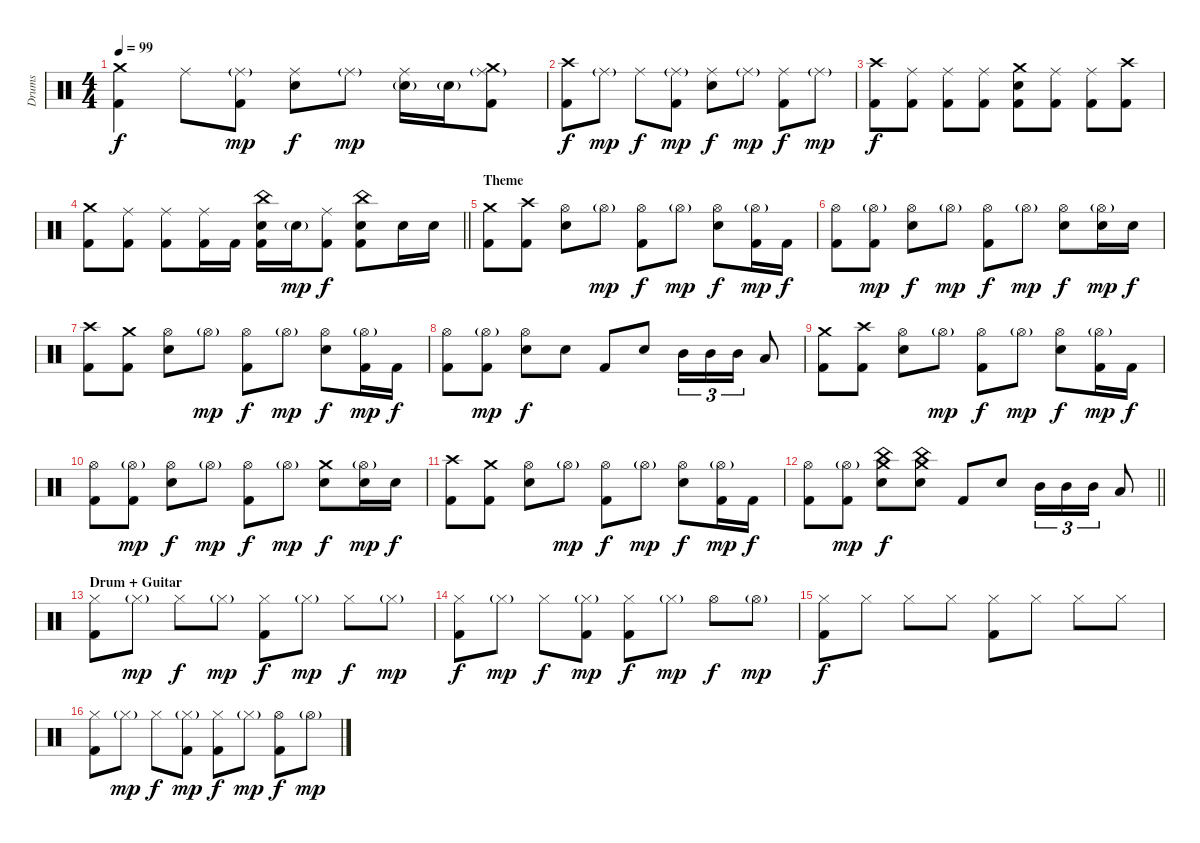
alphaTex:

\track ("Drums" "Drums") {instrument percussion}
\staff {score}
\articulation defaults
\ts (4 4)
\tempo 99
\clef neutral
\ks c
("Crash medium (hit)" "Kick (hit) 2").4{dy f} "Ride (middle)".8 ("Ride (middle)"{g} "Kick (hit) 2").8{dy mp} ("Ride (middle)" "Electric Snare (hit)").8{dy f} "Ride (middle)"{g}.8{dy mp} ("Ride (middle)" "Electric Snare (hit)"{g}).16 "Electric Snare (hit)"{g}.16 ("Crash medium (hit)" "Ride (middle)"{g} "Kick (hit) 2").8 |
("Crash high (hit)" "Kick (hit) 2").8{dy f} "Ride (middle)"{g}.8{dy mp} "Ride (middle)".8{dy f} ("Ride (middle)"{g} "Kick (hit) 2").8{dy mp} ("Ride (middle)" "Electric Snare (hit)").8{dy f} "Ride (middle)"{g}.8{dy mp} ("Ride (middle)" "Kick (hit) 2").8{dy f} "Ride (middle)"{g}.8{dy mp} |
("Crash high (hit)" "Kick (hit) 2").8{dy f} ("Ride (middle)" "Kick (hit) 2").8 ("Ride (middle)" "Kick (hit) 2").8 ("Ride (middle)" "Kick (hit) 2").8 ("Crash medium (hit)" "Electric Snare (hit)" "Kick (hit) 2").8 ("Ride (middle)" "Kick (hit) 2").8 ("Ride (middle)" "Kick (hit) 2").8 ("Crash high (hit)" "Kick (hit) 2").8 |
\barLineRight lightlight
("Crash medium (hit)" "Kick (hit) 2").8 ("Ride (middle)" "Kick (hit) 2").8 ("Ride (middle)" "Kick (hit) 2").8 ("Ride (middle)" "Kick (hit) 2").16 "Kick (hit) 2".16 ("China (hit)" "Electric Snare (hit)" "Kick (hit) 2").16 "Electric Snare (hit)"{g}.16{dy mp} ("Ride (middle)" "Kick (hit) 2").8{dy f} ("China (hit)" "Electric Snare (hit)" "Kick (hit) 2").8 "Electric Snare (hit)".16 "Electric Snare (hit)".16 |
\section ("" "Theme")
("Crash medium (hit)" "Kick (hit) 2").8 ("Crash high (hit)" "Kick (hit) 2").8 ("Hi-Hat (open)" "Electric Snare (hit)").8 "Hi-Hat (open)"{g}.8{dy mp} ("Hi-Hat (open)" "Kick (hit) 2").8{dy f} "Hi-Hat (open)"{g}.8{dy mp} ("Hi-Hat (open)" "Electric Snare (hit)").8{dy f} ("Hi-Hat (open)"{g} "Kick (hit) 2").16{dy mp} "Kick (hit) 2".16{dy f} |
("Hi-Hat (open)" "Kick (hit) 2").8 ("Hi-Hat (open)"{g} "Kick (hit) 2").8{dy mp} ("Hi-Hat (open)" "Electric Snare (hit)").8{dy f} "Hi-Hat (open)"{g}.8{dy mp} ("Hi-Hat (open)" "Kick (hit) 2").8{dy f} "Hi-Hat (open)"{g}.8{dy mp} ("Hi-Hat (open)" "Electric Snare (hit)").8{dy f} ("Hi-Hat (open)"{g} "Electric Snare (hit)").16{dy mp} "Electric Snare (hit)".16{dy f} |
("Crash high (hit)" "Kick (hit) 2").8 ("Crash medium (hit)" "Kick (hit) 2").8 ("Hi-Hat (open)" "Electric Snare (hit)").8 "Hi-Hat (open)"{g}.8{dy mp} ("Hi-Hat (open)" "Kick (hit) 2").8{dy f} "Hi-Hat (open)"{g}.8{dy mp} ("Hi-Hat (open)" "Electric Snare (hit)").8{dy f} ("Hi-Hat (open)"{g} "Kick (hit) 2").16{dy mp} "Kick (hit) 2".16{dy f} |
("Hi-Hat (open)" "Kick (hit) 2").8 ("Hi-Hat (open)"{g} "Kick (hit) 2").8{dy mp} ("Hi-Hat (open)" "Electric Snare (hit)").8{dy f} "Electric Snare (hit)".8 "Kick (hit) 2".8 "Electric Snare (hit)".8 "Mid Tom (hit)".16{tu (3 2)} "Mid Tom (hit)".16{tu (3 2)} "Mid Tom (hit)".16{tu (3 2)} "Low Tom (hit)".8 |
("Crash medium (hit)" "Kick (hit) 2").8 ("Crash high (hit)" "Kick (hit) 2").8 ("Hi-Hat (open)" "Electric Snare (hit)").8 "Hi-Hat (open)"{g}.8{dy mp} ("Hi-Hat (open)" "Kick (hit) 2").8{dy f} "Hi-Hat (open)"{g}.8{dy mp} ("Hi-Hat (open)" "Electric Snare (hit)").8{dy f} ("Hi-Hat (open)"{g} "Kick (hit) 2").16{dy mp} "Kick (hit) 2".16{dy f} |
("Hi-Hat (open)" "Kick (hit) 2").8 ("Hi-Hat (open)"{g} "Kick (hit) 2").8{dy mp} ("Hi-Hat (open)" "Electric Snare (hit)").8{dy f} "Hi-Hat (open)"{g}.8{dy mp} ("Hi-Hat (open)" "Kick (hit) 2").8{dy f} "Hi-Hat (open)"{g}.8{dy mp} ("Crash medium (hit)" "Electric Snare (hit)").8{dy f} ("Hi-Hat (open)"{g} "Electric Snare (hit)").16{dy mp} "Electric Snare (hit)".16{dy f} |
("Crash high (hit)" "Kick (hit) 2").8 ("Crash medium (hit)" "Kick (hit) 2").8 ("Hi-Hat (open)" "Electric Snare (hit)").8 "Hi-Hat (open)"{g}.8{dy mp} ("Hi-Hat (open)" "Kick (hit) 2").8{dy f} "Hi-Hat (open)"{g}.8{dy mp} ("Hi-Hat (open)" "Electric Snare (hit)").8{dy f} ("Hi-Hat (open)"{g} "Kick (hit) 2").16{dy mp} "Kick (hit) 2".16{dy f} |
\barLineRight lightlight
("Hi-Hat (open)" "Kick (hit) 2").8 ("Hi-Hat (open)"{g} "Kick (hit) 2").8{dy mp} ("Crash medium (hit)" "China (hit)" "Electric Snare (hit)").8{dy f} ("Crash medium (hit)" "China (hit)" "Electric Snare (hit)").8 "Kick (hit) 2".8 "Electric Snare (hit)".8 "Mid Tom (hit)".16{tu (3 2)} "Mid Tom (hit)".16{tu (3 2)} "Mid Tom (hit)".16{tu (3 2)} "Low Tom (hit)".8 |
\section ("" "Drum + Guitar")
("Hi-Hat (closed)" "Kick (hit) 2").8 "Hi-Hat (closed)"{g}.8{dy mp} "Hi-Hat (closed)".8{dy f} "Hi-Hat (closed)"{g}.8{dy mp} ("Hi-Hat (closed)" "Kick (hit) 2").8{dy f} "Hi-Hat (closed)"{g}.8{dy mp} "Hi-Hat (closed)".8{dy f} "Hi-Hat (closed)"{g}.8{dy mp} |
("Hi-Hat (closed)" "Kick (hit) 2").8{dy f} "Hi-Hat (closed)"{g}.8{dy mp} "Hi-Hat (closed)".8{dy f} ("Hi-Hat (closed)"{g} "Kick (hit) 2").8{dy mp} ("Hi-Hat (closed)" "Kick (hit) 2").8{dy f} "Hi-Hat (closed)"{g}.8{dy mp} "Hi-Hat (open)".8{dy f} "Hi-Hat (open)"{g}.8{dy mp} |
("Hi-Hat (closed)" "Kick (hit) 2").8{dy f} "Hi-Hat (closed)".8 "Hi-Hat (closed)".8 "Hi-Hat (closed)".8 ("Hi-Hat (closed)" "Kick (hit) 2").8 "Hi-Hat (closed)".8 "Hi-Hat (closed)".8 "Hi-Hat (closed)".8 |
("Hi-Hat (closed)" "Kick (hit) 2").8 "Hi-Hat (closed)"{g}.8{dy mp} "Hi-Hat (closed)".8{dy f} ("Hi-Hat (closed)"{g} "Kick (hit) 2").8{dy mp} ("Hi-Hat (closed)" "Kick (hit) 2").8{dy f} "Hi-Hat (closed)"{g}.8{dy mp} ("Hi-Hat (open)" "Kick (hit) 2").8{dy f} "Hi-Hat (open)"{g}.8{dy mp}
